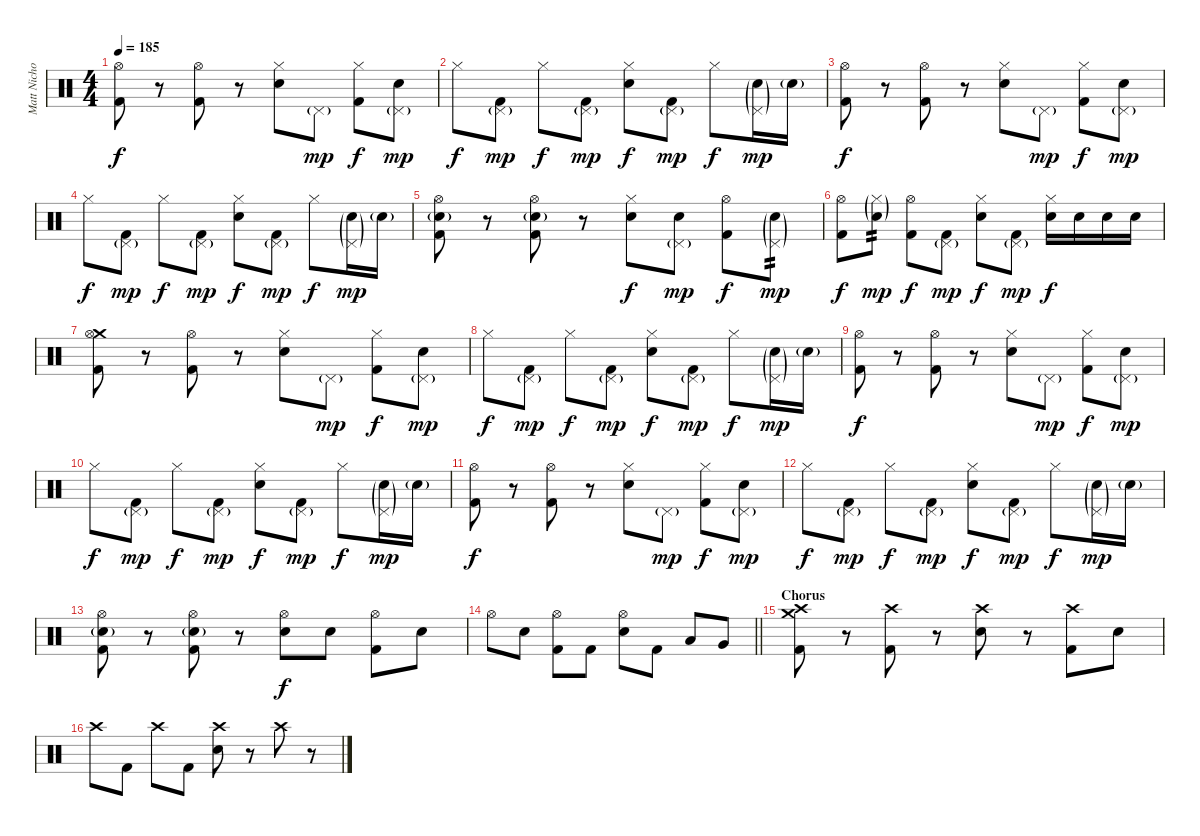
\track ("Matt Nicholls" "Matt Nicho") {instrument percussion}
\staff {score}
\articulation defaults
\ts (4 4)
\tempo 185
\clef neutral
\ks c
("Hi-Hat (open)" "Kick (hit) 2").8{dy f} r.8 ("Hi-Hat (open)" "Kick (hit) 2").8 r.8 ("Hi-Hat (closed)" "Electric Snare (hit)").8 "Pedal Hi-Hat (hit)"{g}.8{dy mp} ("Hi-Hat (closed)" "Kick (hit) 2").8{dy f} ("Pedal Hi-Hat (hit)"{g} "Electric Snare (hit)").8{dy mp} |
"Hi-Hat (closed)".8{dy f} ("Pedal Hi-Hat (hit)"{g} "Kick (hit) 2").8{dy mp} "Hi-Hat (closed)".8{dy f} ("Pedal Hi-Hat (hit)"{g} "Kick (hit) 2").8{dy mp} ("Hi-Hat (closed)" "Electric Snare (hit)").8{dy f} ("Pedal Hi-Hat (hit)"{g} "Kick (hit) 2").8{dy mp} "Hi-Hat (closed)".8{dy f} ("Pedal Hi-Hat (hit)"{g} "Electric Snare (hit)"{g}).16{dy mp} "Electric Snare (hit)"{g}.16 |
("Hi-Hat (open)" "Kick (hit) 2").8{dy f} r.8 ("Hi-Hat (open)" "Kick (hit) 2").8 r.8 ("Hi-Hat (closed)" "Electric Snare (hit)").8 "Pedal Hi-Hat (hit)"{g}.8{dy mp} ("Hi-Hat (closed)" "Kick (hit) 2").8{dy f} ("Pedal Hi-Hat (hit)"{g} "Electric Snare (hit)").8{dy mp} |
"Hi-Hat (closed)".8{dy f} ("Pedal Hi-Hat (hit)"{g} "Kick (hit) 2").8{dy mp} "Hi-Hat (closed)".8{dy f} ("Pedal Hi-Hat (hit)"{g} "Kick (hit) 2").8{dy mp} ("Hi-Hat (closed)" "Electric Snare (hit)").8{dy f} ("Pedal Hi-Hat (hit)"{g} "Kick (hit) 2").8{dy mp} "Hi-Hat (closed)".8{dy f} ("Pedal Hi-Hat (hit)"{g} "Electric Snare (hit)"{g}).16{dy mp} "Electric Snare (hit)"{g}.16 |
("Hi-Hat (open)" "Electric Snare (hit)"{g} "Kick (hit) 2").8 r.8 ("Hi-Hat (open)" "Electric Snare (hit)"{g} "Kick (hit) 2").8 r.8 ("Hi-Hat (closed)" "Electric Snare (hit)").8{dy f} ("Pedal Hi-Hat (hit)"{g} "Electric Snare (hit)").8{dy mp} ("Hi-Hat (open)" "Kick (hit) 2").8{dy f} ("Pedal Hi-Hat (hit)"{g} "Electric Snare (hit)"{g}).8{tp 2 dy mp} |
("Hi-Hat (open)" "Kick (hit) 2").8{dy f} ("Hi-Hat (closed)"{g} "Electric Snare (hit)"{g}).8{tp 2 dy mp} ("Hi-Hat (open)" "Kick (hit) 2").8{dy f} ("Pedal Hi-Hat (hit)"{g} "Kick (hit) 2").8{dy mp} ("Hi-Hat (closed)" "Electric Snare (hit)").8{dy f} ("Pedal Hi-Hat (hit)"{g} "Kick (hit) 2").8{dy mp} ("Hi-Hat (closed)" "Electric Snare (hit)").16{dy f} "Electric Snare (hit)".16 "Electric Snare (hit)".16 "Electric Snare (hit)".16 |
("Crash medium (hit)" "Hi-Hat (open)" "Kick (hit) 2").8 r.8 ("Hi-Hat (open)" "Kick (hit) 2").8 r.8 ("Hi-Hat (closed)" "Electric Snare (hit)").8 "Pedal Hi-Hat (hit)"{g}.8{dy mp} ("Hi-Hat (closed)" "Kick (hit) 2").8{dy f} ("Pedal Hi-Hat (hit)"{g} "Electric Snare (hit)").8{dy mp} |
"Hi-Hat (closed)".8{dy f} ("Pedal Hi-Hat (hit)"{g} "Kick (hit) 2").8{dy mp} "Hi-Hat (closed)".8{dy f} ("Pedal Hi-Hat (hit)"{g} "Kick (hit) 2").8{dy mp} ("Hi-Hat (closed)" "Electric Snare (hit)").8{dy f} ("Pedal Hi-Hat (hit)"{g} "Kick (hit) 2").8{dy mp} "Hi-Hat (closed)".8{dy f} ("Pedal Hi-Hat (hit)"{g} "Electric Snare (hit)"{g}).16{dy mp} "Electric Snare (hit)"{g}.16 |
("Hi-Hat (open)" "Kick (hit) 2").8{dy f} r.8 ("Hi-Hat (open)" "Kick (hit) 2").8 r.8 ("Hi-Hat (closed)" "Electric Snare (hit)").8 "Pedal Hi-Hat (hit)"{g}.8{dy mp} ("Hi-Hat (closed)" "Kick (hit) 2").8{dy f} ("Pedal Hi-Hat (hit)"{g} "Electric Snare (hit)").8{dy mp} |
"Hi-Hat (closed)".8{dy f} ("Pedal Hi-Hat (hit)"{g} "Kick (hit) 2").8{dy mp} "Hi-Hat (closed)".8{dy f} ("Pedal Hi-Hat (hit)"{g} "Kick (hit) 2").8{dy mp} ("Hi-Hat (closed)" "Electric Snare (hit)").8{dy f} ("Pedal Hi-Hat (hit)"{g} "Kick (hit) 2").8{dy mp} "Hi-Hat (closed)".8{dy f} ("Pedal Hi-Hat (hit)"{g} "Electric Snare (hit)"{g}).16{dy mp} "Electric Snare (hit)"{g}.16 |
("Hi-Hat (open)" "Kick (hit) 2").8{dy f} r.8 ("Hi-Hat (open)" "Kick (hit) 2").8 r.8 ("Hi-Hat (closed)" "Electric Snare (hit)").8 "Pedal Hi-Hat (hit)"{g}.8{dy mp} ("Hi-Hat (closed)" "Kick (hit) 2").8{dy f} ("Pedal Hi-Hat (hit)"{g} "Electric Snare (hit)").8{dy mp} |
"Hi-Hat (closed)".8{dy f} ("Pedal Hi-Hat (hit)"{g} "Kick (hit) 2").8{dy mp} "Hi-Hat (closed)".8{dy f} ("Pedal Hi-Hat (hit)"{g} "Kick (hit) 2").8{dy mp} ("Hi-Hat (closed)" "Electric Snare (hit)").8{dy f} ("Pedal Hi-Hat (hit)"{g} "Kick (hit) 2").8{dy mp} "Hi-Hat (closed)".8{dy f} ("Pedal Hi-Hat (hit)"{g} "Electric Snare (hit)"{g}).16{dy mp} "Electric Snare (hit)"{g}.16 |
("Hi-Hat (open)" "Electric Snare (hit)"{g} "Kick (hit) 2").8 r.8 ("Hi-Hat (open)" "Electric Snare (hit)"{g} "Kick (hit) 2").8 r.8 ("Hi-Hat (open)" "Electric Snare (hit)").8{dy f} "Electric Snare (hit)".8 ("Hi-Hat (open)" "Kick (hit) 2").8 "Electric Snare (hit)".8 |
\barLineRight lightlight "Hi-Hat (open)".8 "Electric Snare (hit)".8
("Hi-Hat (open)" "Kick (hit) 2").8 "Kick (hit) 2".8 ("Hi-Hat (open)" "Electric Snare (hit)").8 "Kick (hit) 2".8 "Low Tom (hit)".8 "Very Low Tom (hit)".8 |
\section ("" "Chorus")
("Crash medium (hit)" "Crash high (hit)" "Kick (hit) 2").8 r.8 ("Crash high (hit)" "Kick (hit) 2").8 r.8 ("Crash high (hit)" "Electric Snare (hit)").8 r.8 ("Crash high (hit)" "Kick (hit) 2").8 "Electric Snare (hit)".8 |
"Crash high (hit)".8 "Kick (hit) 2".8 "Crash high (hit)".8 "Kick (hit) 2".8 ("Crash high (hit)" "Electric Snare (hit)").8 r.8 "Crash high (hit)".8 r.8
